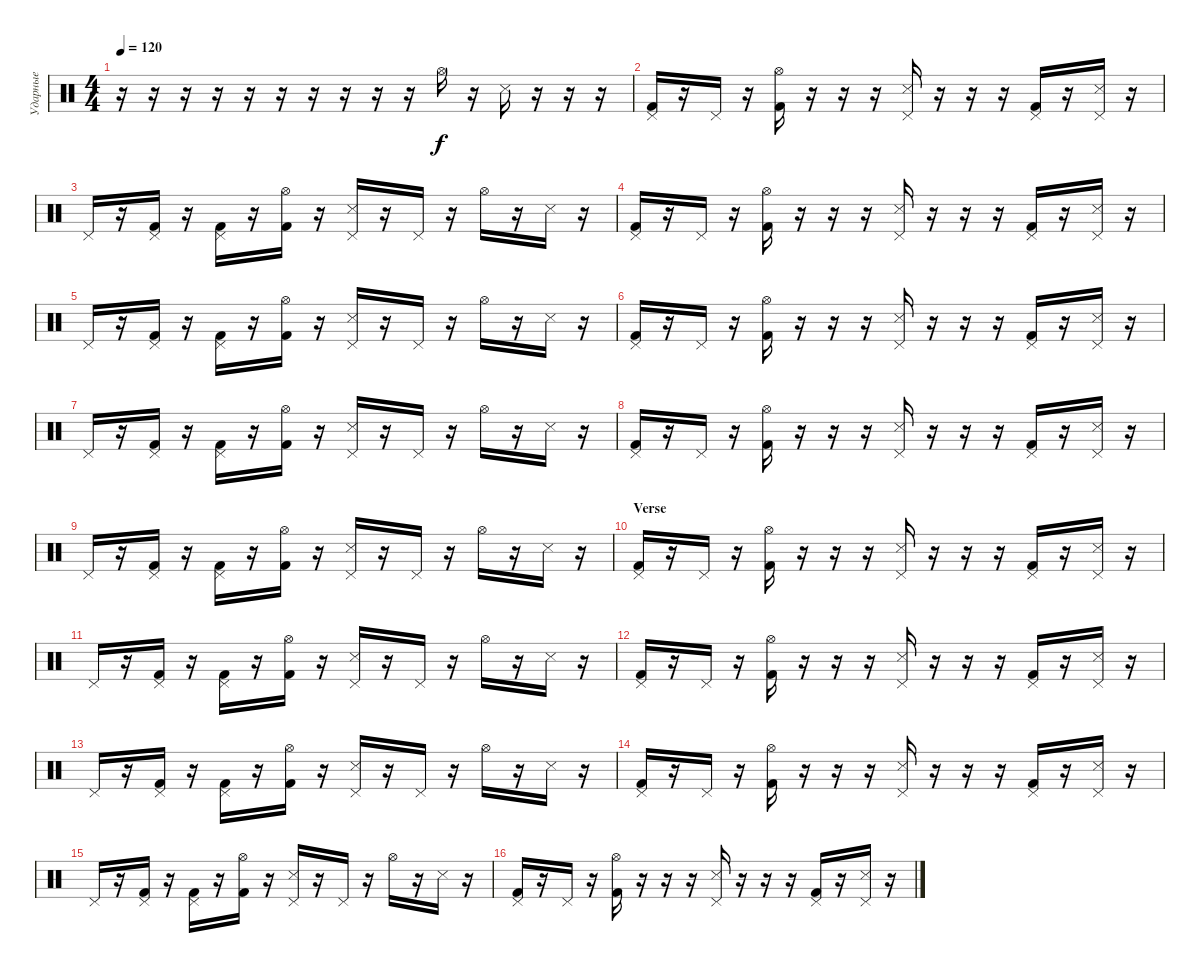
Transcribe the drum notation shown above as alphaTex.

\track ("Ударные" "Ударные") {instrument percussion}
\staff {score}
\articulation defaults
\ts (4 4)
\tempo 120
\clef neutral
\ks c
r.16{dy f} r.16 r.16 r.16 r.16 r.16 r.16 r.16 r.16 r.16 "Hi-Hat (open)".16 r.16 "Snare (side stick) 3".16 r.16 r.16 r.16 |
("Pedal Hi-Hat (hit)" "Kick (hit) 2").16 r.16 "Pedal Hi-Hat (hit)".16 r.16 ("Hi-Hat (open)" "Kick (hit) 2").16 r.16 r.16 r.16 ("Pedal Hi-Hat (hit)" "Snare (side stick) 3").16 r.16 r.16 r.16 ("Pedal Hi-Hat (hit)" "Kick (hit) 2").16 r.16 ("Pedal Hi-Hat (hit)" "Snare (side stick) 3").16 r.16 |
"Pedal Hi-Hat (hit)".16 r.16 ("Pedal Hi-Hat (hit)" "Kick (hit) 2").16 r.16 ("Pedal Hi-Hat (hit)" "Kick (hit) 2").16 r.16 ("Hi-Hat (open)" "Kick (hit) 2").16 r.16 ("Pedal Hi-Hat (hit)" "Snare (side stick) 3").16 r.16 "Pedal Hi-Hat (hit)".16 r.16 "Hi-Hat (open)".16 r.16 "Snare (side stick) 3".16 r.16 |
("Pedal Hi-Hat (hit)" "Kick (hit) 2").16 r.16 "Pedal Hi-Hat (hit)".16 r.16 ("Hi-Hat (open)" "Kick (hit) 2").16 r.16 r.16 r.16 ("Pedal Hi-Hat (hit)" "Snare (side stick) 3").16 r.16 r.16 r.16 ("Pedal Hi-Hat (hit)" "Kick (hit) 2").16 r.16 ("Pedal Hi-Hat (hit)" "Snare (side stick) 3").16 r.16 |
"Pedal Hi-Hat (hit)".16 r.16 ("Pedal Hi-Hat (hit)" "Kick (hit) 2").16 r.16 ("Pedal Hi-Hat (hit)" "Kick (hit) 2").16 r.16 ("Hi-Hat (open)" "Kick (hit) 2").16 r.16 ("Pedal Hi-Hat (hit)" "Snare (side stick) 3").16 r.16 "Pedal Hi-Hat (hit)".16 r.16 "Hi-Hat (open)".16 r.16 "Snare (side stick) 3".16 r.16 |
("Pedal Hi-Hat (hit)" "Kick (hit) 2").16 r.16 "Pedal Hi-Hat (hit)".16 r.16 ("Hi-Hat (open)" "Kick (hit) 2").16 r.16 r.16 r.16 ("Pedal Hi-Hat (hit)" "Snare (side stick) 3").16 r.16 r.16 r.16 ("Pedal Hi-Hat (hit)" "Kick (hit) 2").16 r.16 ("Pedal Hi-Hat (hit)" "Snare (side stick) 3").16 r.16 |
"Pedal Hi-Hat (hit)".16 r.16 ("Pedal Hi-Hat (hit)" "Kick (hit) 2").16 r.16 ("Pedal Hi-Hat (hit)" "Kick (hit) 2").16 r.16 ("Hi-Hat (open)" "Kick (hit) 2").16 r.16 ("Pedal Hi-Hat (hit)" "Snare (side stick) 3").16 r.16 "Pedal Hi-Hat (hit)".16 r.16 "Hi-Hat (open)".16 r.16 "Snare (side stick) 3".16 r.16 |
("Pedal Hi-Hat (hit)" "Kick (hit) 2").16 r.16 "Pedal Hi-Hat (hit)".16 r.16 ("Hi-Hat (open)" "Kick (hit) 2").16 r.16 r.16 r.16 ("Pedal Hi-Hat (hit)" "Snare (side stick) 3").16 r.16 r.16 r.16 ("Pedal Hi-Hat (hit)" "Kick (hit) 2").16 r.16 ("Pedal Hi-Hat (hit)" "Snare (side stick) 3").16 r.16 |
"Pedal Hi-Hat (hit)".16 r.16 ("Pedal Hi-Hat (hit)" "Kick (hit) 2").16 r.16 ("Pedal Hi-Hat (hit)" "Kick (hit) 2").16 r.16 ("Hi-Hat (open)" "Kick (hit) 2").16 r.16 ("Pedal Hi-Hat (hit)" "Snare (side stick) 3").16 r.16 "Pedal Hi-Hat (hit)".16 r.16 "Hi-Hat (open)".16 r.16 "Snare (side stick) 3".16 r.16 |
\section ("" "Verse")
("Pedal Hi-Hat (hit)" "Kick (hit) 2").16 r.16 "Pedal Hi-Hat (hit)".16 r.16 ("Hi-Hat (open)" "Kick (hit) 2").16 r.16 r.16 r.16 ("Pedal Hi-Hat (hit)" "Snare (side stick) 3").16 r.16 r.16 r.16 ("Pedal Hi-Hat (hit)" "Kick (hit) 2").16 r.16 ("Pedal Hi-Hat (hit)" "Snare (side stick) 3").16 r.16 |
"Pedal Hi-Hat (hit)".16 r.16 ("Pedal Hi-Hat (hit)" "Kick (hit) 2").16 r.16 ("Pedal Hi-Hat (hit)" "Kick (hit) 2").16 r.16 ("Hi-Hat (open)" "Kick (hit) 2").16 r.16 ("Pedal Hi-Hat (hit)" "Snare (side stick) 3").16 r.16 "Pedal Hi-Hat (hit)".16 r.16 "Hi-Hat (open)".16 r.16 "Snare (side stick) 3".16 r.16 |
("Pedal Hi-Hat (hit)" "Kick (hit) 2").16 r.16 "Pedal Hi-Hat (hit)".16 r.16 ("Hi-Hat (open)" "Kick (hit) 2").16 r.16 r.16 r.16 ("Pedal Hi-Hat (hit)" "Snare (side stick) 3").16 r.16 r.16 r.16 ("Pedal Hi-Hat (hit)" "Kick (hit) 2").16 r.16 ("Pedal Hi-Hat (hit)" "Snare (side stick) 3").16 r.16 |
"Pedal Hi-Hat (hit)".16 r.16 ("Pedal Hi-Hat (hit)" "Kick (hit) 2").16 r.16 ("Pedal Hi-Hat (hit)" "Kick (hit) 2").16 r.16 ("Hi-Hat (open)" "Kick (hit) 2").16 r.16 ("Pedal Hi-Hat (hit)" "Snare (side stick) 3").16 r.16 "Pedal Hi-Hat (hit)".16 r.16 "Hi-Hat (open)".16 r.16 "Snare (side stick) 3".16 r.16 |
("Pedal Hi-Hat (hit)" "Kick (hit) 2").16 r.16 "Pedal Hi-Hat (hit)".16 r.16 ("Hi-Hat (open)" "Kick (hit) 2").16 r.16 r.16 r.16 ("Pedal Hi-Hat (hit)" "Snare (side stick) 3").16 r.16 r.16 r.16 ("Pedal Hi-Hat (hit)" "Kick (hit) 2").16 r.16 ("Pedal Hi-Hat (hit)" "Snare (side stick) 3").16 r.16 |
"Pedal Hi-Hat (hit)".16 r.16 ("Pedal Hi-Hat (hit)" "Kick (hit) 2").16 r.16 ("Pedal Hi-Hat (hit)" "Kick (hit) 2").16 r.16 ("Hi-Hat (open)" "Kick (hit) 2").16 r.16 ("Pedal Hi-Hat (hit)" "Snare (side stick) 3").16 r.16 "Pedal Hi-Hat (hit)".16 r.16 "Hi-Hat (open)".16 r.16 "Snare (side stick) 3".16 r.16 |
("Pedal Hi-Hat (hit)" "Kick (hit) 2").16 r.16 "Pedal Hi-Hat (hit)".16 r.16 ("Hi-Hat (open)" "Kick (hit) 2").16 r.16 r.16 r.16 ("Pedal Hi-Hat (hit)" "Snare (side stick) 3").16 r.16 r.16 r.16 ("Pedal Hi-Hat (hit)" "Kick (hit) 2").16 r.16 ("Pedal Hi-Hat (hit)" "Snare (side stick) 3").16 r.16
